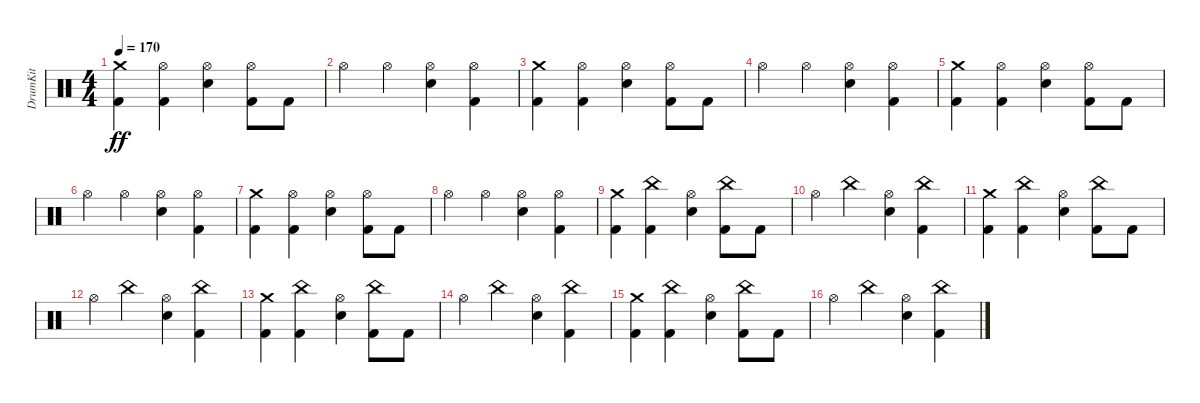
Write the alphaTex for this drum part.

\track ("DrumKit" "DrumKit") {instrument percussion}
\staff {score}
\articulation defaults
\ts (4 4)
\tempo 170
\clef neutral
\ks c
("Kick (hit) 2" "Crash medium (hit)").4{dy ff} ("Kick (hit) 2" "Hi-Hat (open)").4 ("Snare (hit) 2" "Hi-Hat (open)").4 ("Kick (hit) 2" "Hi-Hat (open)").8 "Kick (hit) 2".8 |
"Hi-Hat (open)".4 "Hi-Hat (open)".4 ("Snare (hit) 2" "Hi-Hat (open)").4 ("Kick (hit) 2" "Hi-Hat (open)").4 |
("Kick (hit) 2" "Crash medium (hit)").4 ("Kick (hit) 2" "Hi-Hat (open)").4 ("Snare (hit) 2" "Hi-Hat (open)").4 ("Kick (hit) 2" "Hi-Hat (open)").8 "Kick (hit) 2".8 |
"Hi-Hat (open)".4 "Hi-Hat (open)".4 ("Snare (hit) 2" "Hi-Hat (open)").4 ("Kick (hit) 2" "Hi-Hat (open)").4 |
("Kick (hit) 2" "Crash medium (hit)").4 ("Kick (hit) 2" "Hi-Hat (open)").4 ("Snare (hit) 2" "Hi-Hat (open)").4 ("Kick (hit) 2" "Hi-Hat (open)").8 "Kick (hit) 2".8 |
"Hi-Hat (open)".4 "Hi-Hat (open)".4 ("Snare (hit) 2" "Hi-Hat (open)").4 ("Kick (hit) 2" "Hi-Hat (open)").4 |
("Kick (hit) 2" "Crash medium (hit)").4 ("Kick (hit) 2" "Hi-Hat (open)").4 ("Snare (hit) 2" "Hi-Hat (open)").4 ("Kick (hit) 2" "Hi-Hat (open)").8 "Kick (hit) 2".8 |
"Hi-Hat (open)".4 "Hi-Hat (open)".4 ("Snare (hit) 2" "Hi-Hat (open)").4 ("Kick (hit) 2" "Hi-Hat (open)").4 |
("Kick (hit) 2" "Crash medium (hit)").4 ("Kick (hit) 2" "China (hit)").4 ("Snare (hit) 2" "Hi-Hat (open)").4 ("Kick (hit) 2" "China (hit)").8 "Kick (hit) 2".8 |
"Hi-Hat (open)".4 "China (hit)".4 ("Snare (hit) 2" "Hi-Hat (open)").4 ("Kick (hit) 2" "China (hit)").4 |
("Kick (hit) 2" "Crash medium (hit)").4 ("Kick (hit) 2" "China (hit)").4 ("Snare (hit) 2" "Hi-Hat (open)").4 ("Kick (hit) 2" "China (hit)").8 "Kick (hit) 2".8 |
"Hi-Hat (open)".4 "China (hit)".4 ("Snare (hit) 2" "Hi-Hat (open)").4 ("Kick (hit) 2" "China (hit)").4 |
("Kick (hit) 2" "Crash medium (hit)").4 ("Kick (hit) 2" "China (hit)").4 ("Snare (hit) 2" "Hi-Hat (open)").4 ("Kick (hit) 2" "China (hit)").8 "Kick (hit) 2".8 |
"Hi-Hat (open)".4 "China (hit)".4 ("Snare (hit) 2" "Hi-Hat (open)").4 ("Kick (hit) 2" "China (hit)").4 |
("Kick (hit) 2" "Crash medium (hit)").4 ("Kick (hit) 2" "China (hit)").4 ("Snare (hit) 2" "Hi-Hat (open)").4 ("Kick (hit) 2" "China (hit)").8 "Kick (hit) 2".8 |
"Hi-Hat (open)".4 "China (hit)".4 ("Snare (hit) 2" "Hi-Hat (open)").4 ("Kick (hit) 2" "China (hit)").4
